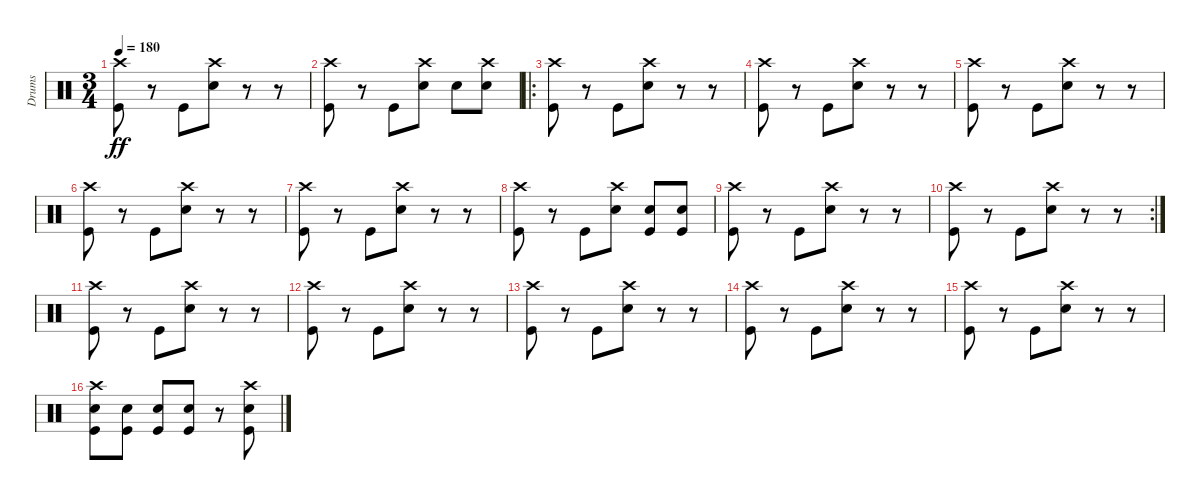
\track ("Drums" "Drums") {instrument percussion}
\staff {score}
\articulation defaults
\ts (3 4)
\tempo 180
\clef neutral
\ks c
("Crash high (hit)" "Kick (hit)").8{dy ff} r.8 "Kick (hit)".8 ("Crash high (hit)" "Snare (hit) 2").8 r.8 r.8 |
("Crash high (hit)" "Kick (hit)").8 r.8 "Kick (hit)".8 ("Crash high (hit)" "Snare (hit) 2").8 "Snare (hit) 2".8 ("Crash high (hit)" "Snare (hit) 2").8 |
\ro
("Crash high (hit)" "Kick (hit)").8 r.8 "Kick (hit)".8 ("Crash high (hit)" "Snare (hit) 2").8 r.8 r.8 |
("Crash high (hit)" "Kick (hit)").8 r.8 "Kick (hit)".8 ("Crash high (hit)" "Snare (hit) 2").8 r.8 r.8 |
("Crash high (hit)" "Kick (hit)").8 r.8 "Kick (hit)".8 ("Crash high (hit)" "Snare (hit) 2").8 r.8 r.8 |
("Crash high (hit)" "Kick (hit)").8 r.8 "Kick (hit)".8 ("Crash high (hit)" "Snare (hit) 2").8 r.8 r.8 |
("Crash high (hit)" "Kick (hit)").8 r.8 "Kick (hit)".8 ("Crash high (hit)" "Snare (hit) 2").8 r.8 r.8 |
("Crash high (hit)" "Kick (hit)").8 r.8 "Kick (hit)".8 ("Crash high (hit)" "Snare (hit) 2").8 ("Snare (hit) 2" "Kick (hit)").8 ("Snare (hit) 2" "Kick (hit)").8 |
("Crash high (hit)" "Kick (hit)").8 r.8 "Kick (hit)".8 ("Crash high (hit)" "Snare (hit) 2").8 r.8 r.8 |
\rc 2
("Crash high (hit)" "Kick (hit)").8 r.8 "Kick (hit)".8 ("Crash high (hit)" "Snare (hit) 2").8 r.8 r.8 |
("Crash high (hit)" "Kick (hit)").8 r.8 "Kick (hit)".8 ("Crash high (hit)" "Snare (hit) 2").8 r.8 r.8 |
("Crash high (hit)" "Kick (hit)").8 r.8 "Kick (hit)".8 ("Crash high (hit)" "Snare (hit) 2").8 r.8 r.8 |
("Crash high (hit)" "Kick (hit)").8 r.8 "Kick (hit)".8 ("Crash high (hit)" "Snare (hit) 2").8 r.8 r.8 |
("Crash high (hit)" "Kick (hit)").8 r.8 "Kick (hit)".8 ("Crash high (hit)" "Snare (hit) 2").8 r.8 r.8 |
("Crash high (hit)" "Kick (hit)").8 r.8 "Kick (hit)".8 ("Crash high (hit)" "Snare (hit) 2").8 r.8 r.8 |
("Crash high (hit)" "Snare (hit) 2" "Kick (hit)").8 ("Snare (hit) 2" "Kick (hit)").8 ("Snare (hit) 2" "Kick (hit)").8 ("Snare (hit) 2" "Kick (hit)").8 r.8 ("Crash high (hit)" "Snare (hit) 2" "Kick (hit)").8
